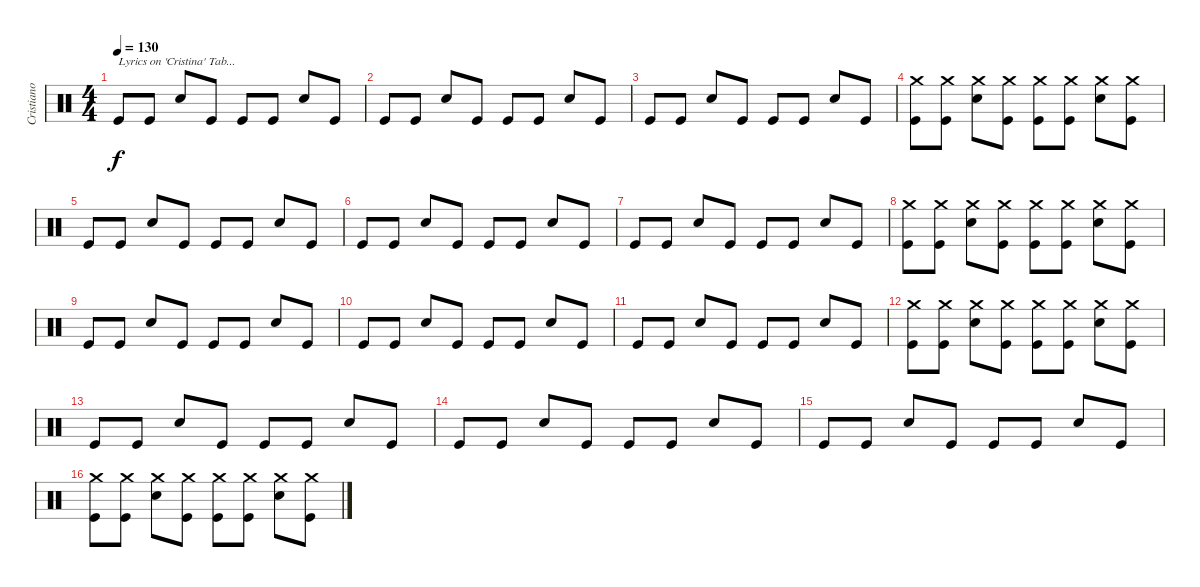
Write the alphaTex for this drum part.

\track ("Cristiano Mozzati" "Cristiano ") {instrument percussion}
\staff {score}
\articulation defaults
\ts (4 4)
\tempo 130
\clef neutral
\ks c "Kick (hit)".8{txt "Lyrics on 'Cristina' Tab..." dy f} "Kick (hit)".8 "Snare (hit) 2".8 "Kick (hit)".8 "Kick (hit)".8 "Kick (hit)".8 "Snare (hit) 2".8 "Kick (hit)".8
|
"Kick (hit)".8 "Kick (hit)".8 "Snare (hit) 2".8 "Kick (hit)".8 "Kick (hit)".8 "Kick (hit)".8 "Snare (hit) 2".8 "Kick (hit)".8 |
"Kick (hit)".8 "Kick (hit)".8 "Snare (hit) 2".8 "Kick (hit)".8 "Kick (hit)".8 "Kick (hit)".8 "Snare (hit) 2".8 "Kick (hit)".8 |
("Kick (hit)" "Crash medium (hit)").8 ("Kick (hit)" "Crash medium (hit)").8 ("Snare (hit) 2" "Crash medium (hit)").8 ("Kick (hit)" "Crash medium (hit)").8 ("Kick (hit)" "Crash medium (hit)").8 ("Kick (hit)" "Crash medium (hit)").8 ("Snare (hit) 2" "Crash medium (hit)").8 ("Kick (hit)" "Crash medium (hit)").8 |
"Kick (hit)".8 "Kick (hit)".8 "Snare (hit) 2".8 "Kick (hit)".8 "Kick (hit)".8 "Kick (hit)".8 "Snare (hit) 2".8 "Kick (hit)".8 |
"Kick (hit)".8 "Kick (hit)".8 "Snare (hit) 2".8 "Kick (hit)".8 "Kick (hit)".8 "Kick (hit)".8 "Snare (hit) 2".8 "Kick (hit)".8 |
"Kick (hit)".8 "Kick (hit)".8 "Snare (hit) 2".8 "Kick (hit)".8 "Kick (hit)".8 "Kick (hit)".8 "Snare (hit) 2".8 "Kick (hit)".8 |
("Kick (hit)" "Crash medium (hit)").8 ("Kick (hit)" "Crash medium (hit)").8 ("Snare (hit) 2" "Crash medium (hit)").8 ("Kick (hit)" "Crash medium (hit)").8 ("Kick (hit)" "Crash medium (hit)").8 ("Kick (hit)" "Crash medium (hit)").8 ("Snare (hit) 2" "Crash medium (hit)").8 ("Kick (hit)" "Crash medium (hit)").8 |
"Kick (hit)".8 "Kick (hit)".8 "Snare (hit) 2".8 "Kick (hit)".8 "Kick (hit)".8 "Kick (hit)".8 "Snare (hit) 2".8 "Kick (hit)".8 |
"Kick (hit)".8 "Kick (hit)".8 "Snare (hit) 2".8 "Kick (hit)".8 "Kick (hit)".8 "Kick (hit)".8 "Snare (hit) 2".8 "Kick (hit)".8 |
"Kick (hit)".8 "Kick (hit)".8 "Snare (hit) 2".8 "Kick (hit)".8 "Kick (hit)".8 "Kick (hit)".8 "Snare (hit) 2".8 "Kick (hit)".8 |
("Kick (hit)" "Crash medium (hit)").8 ("Kick (hit)" "Crash medium (hit)").8 ("Snare (hit) 2" "Crash medium (hit)").8 ("Kick (hit)" "Crash medium (hit)").8 ("Kick (hit)" "Crash medium (hit)").8 ("Kick (hit)" "Crash medium (hit)").8 ("Snare (hit) 2" "Crash medium (hit)").8 ("Kick (hit)" "Crash medium (hit)").8 |
"Kick (hit)".8 "Kick (hit)".8 "Snare (hit) 2".8 "Kick (hit)".8 "Kick (hit)".8 "Kick (hit)".8 "Snare (hit) 2".8 "Kick (hit)".8 |
"Kick (hit)".8 "Kick (hit)".8 "Snare (hit) 2".8 "Kick (hit)".8 "Kick (hit)".8 "Kick (hit)".8 "Snare (hit) 2".8 "Kick (hit)".8 |
"Kick (hit)".8 "Kick (hit)".8 "Snare (hit) 2".8 "Kick (hit)".8 "Kick (hit)".8 "Kick (hit)".8 "Snare (hit) 2".8 "Kick (hit)".8 |
("Kick (hit)" "Crash medium (hit)").8 ("Kick (hit)" "Crash medium (hit)").8 ("Snare (hit) 2" "Crash medium (hit)").8 ("Kick (hit)" "Crash medium (hit)").8 ("Kick (hit)" "Crash medium (hit)").8 ("Kick (hit)" "Crash medium (hit)").8 ("Snare (hit) 2" "Crash medium (hit)").8 ("Kick (hit)" "Crash medium (hit)").8
